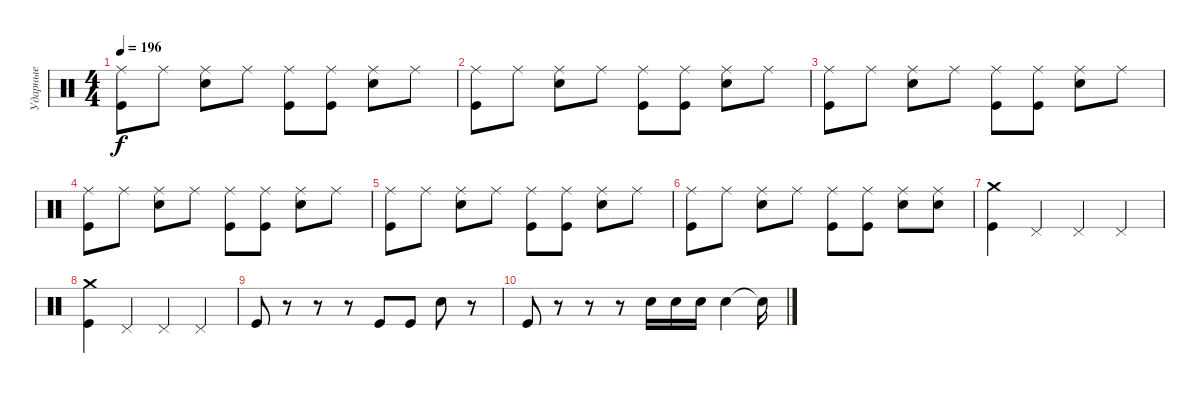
\track ("Ударные" "Ударные") {instrument percussion}
\staff {score}
\articulation defaults
\ts (4 4)
\tempo 196
\clef neutral
\ks c
("Ride (middle)" "Kick (hit)").8{dy f} "Ride (middle)".8 ("Ride (middle)" "Electric Snare (hit)").8 "Ride (middle)".8 ("Ride (middle)" "Kick (hit)").8 ("Ride (middle)" "Kick (hit)").8 ("Ride (middle)" "Electric Snare (hit)").8 "Ride (middle)".8 |
("Ride (middle)" "Kick (hit)").8 "Ride (middle)".8 ("Ride (middle)" "Electric Snare (hit)").8 "Ride (middle)".8 ("Ride (middle)" "Kick (hit)").8 ("Ride (middle)" "Kick (hit)").8 ("Ride (middle)" "Electric Snare (hit)").8 "Ride (middle)".8 |
("Ride (middle)" "Kick (hit)").8 "Ride (middle)".8 ("Ride (middle)" "Electric Snare (hit)").8 "Ride (middle)".8 ("Ride (middle)" "Kick (hit)").8 ("Ride (middle)" "Kick (hit)").8 ("Ride (middle)" "Electric Snare (hit)").8 "Ride (middle)".8 |
("Ride (middle)" "Kick (hit)").8 "Ride (middle)".8 ("Ride (middle)" "Electric Snare (hit)").8 "Ride (middle)".8 ("Ride (middle)" "Kick (hit)").8 ("Ride (middle)" "Kick (hit)").8 ("Ride (middle)" "Electric Snare (hit)").8 "Ride (middle)".8 |
("Ride (middle)" "Kick (hit)").8 "Ride (middle)".8 ("Ride (middle)" "Electric Snare (hit)").8 "Ride (middle)".8 ("Ride (middle)" "Kick (hit)").8 ("Ride (middle)" "Kick (hit)").8 ("Ride (middle)" "Electric Snare (hit)").8 "Ride (middle)".8 |
("Ride (middle)" "Kick (hit)").8 "Ride (middle)".8 ("Ride (middle)" "Electric Snare (hit)").8 "Ride (middle)".8 ("Ride (middle)" "Kick (hit)").8 ("Ride (middle)" "Kick (hit)").8 ("Ride (middle)" "Electric Snare (hit)").8 ("Ride (middle)" "Electric Snare (hit)").8 |
("Crash medium (hit)" "Kick (hit)").4 "Pedal Hi-Hat (hit)".4 "Pedal Hi-Hat (hit)".4 "Pedal Hi-Hat (hit)".4 |
("Crash medium (hit)" "Kick (hit)").4 "Pedal Hi-Hat (hit)".4 "Pedal Hi-Hat (hit)".4 "Pedal Hi-Hat (hit)".4 |
"Kick (hit)".8 r.8 r.8 r.8 "Kick (hit)".8 "Kick (hit)".8 "Electric Snare (hit)".8 r.8 |
"Kick (hit)".8 r.8 r.8 r.8 "Electric Snare (hit)".16 "Electric Snare (hit)".16 "Electric Snare (hit)".16 "Electric Snare (hit)".4 "Snare (hit)"{t}.16
